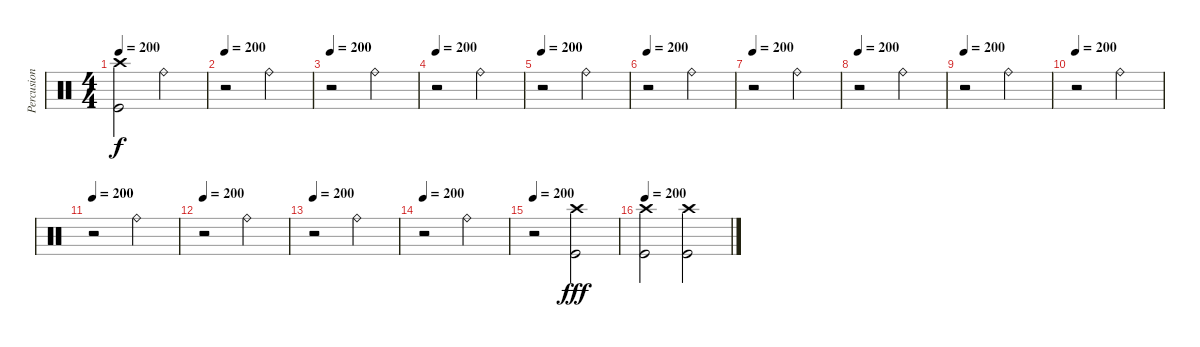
\track ("Percusion" "Percusion") {instrument percussion}
\staff {score}
\articulation defaults
\ts (4 4)
\tempo 200
\clef neutral
\ks c
("Crash high (hit)" "Kick (hit)").2{dy f} "Ride (bell)".2 |
\tempo 200
r.2 "Ride (bell)".2 |
\tempo 200
r.2 "Ride (bell)".2 |
\tempo 200
r.2 "Ride (bell)".2 |
\tempo 200
r.2 "Ride (bell)".2 |
\tempo 200
r.2 "Ride (bell)".2 |
\tempo 200
r.2 "Ride (bell)".2 |
\tempo 200
r.2 "Ride (bell)".2 |
\tempo 200
r.2 "Ride (bell)".2 |
\tempo 200
r.2 "Ride (bell)".2 |
\tempo 200
r.2 "Ride (bell)".2 |
\tempo 200
r.2 "Ride (bell)".2 |
\tempo 200
r.2 "Ride (bell)".2 |
\tempo 200
r.2 "Ride (bell)".2 |
\tempo 200
r.2 ("Crash high (hit)" "Kick (hit)").2{dy fff} |
\tempo 200
("Crash high (hit)" "Kick (hit)").2 ("Crash high (hit)" "Kick (hit)").2
